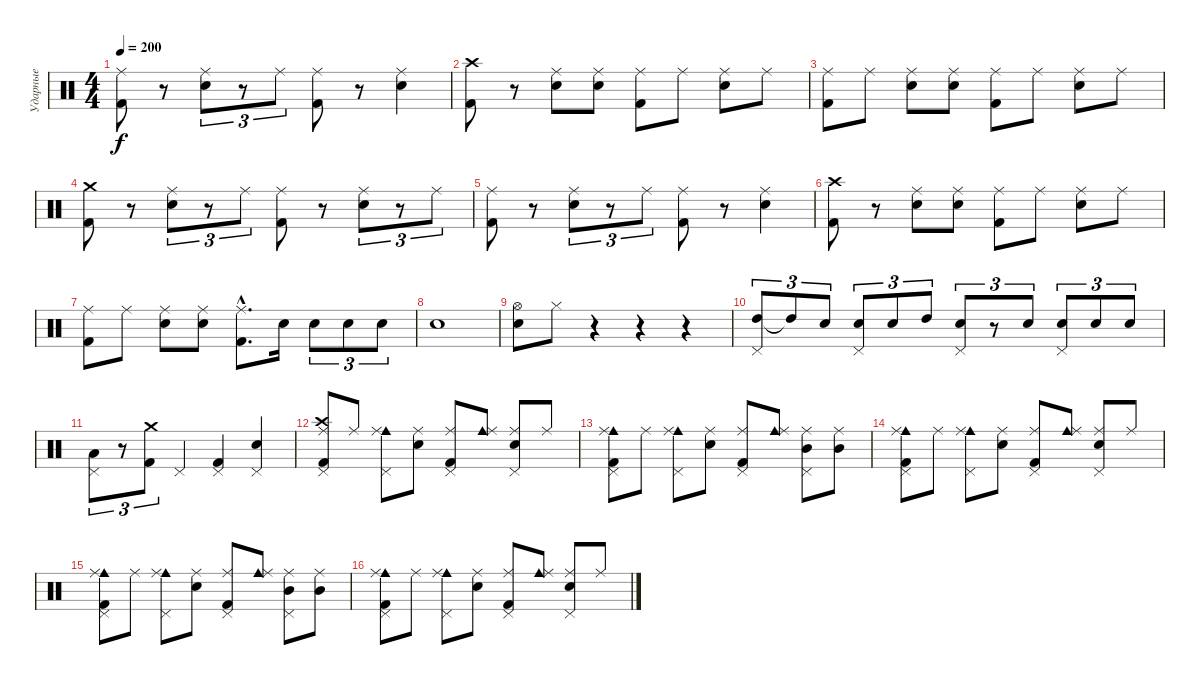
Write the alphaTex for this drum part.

\track ("Ударные" "Ударные") {instrument percussion}
\staff {score}
\articulation defaults
\ts (4 4)
\tempo 200
\clef neutral
\ks c
("Ride (middle)" "Kick (hit) 2").8{dy f} r.8 ("Ride (middle)" "Electric Snare (hit)").8{tu (3 2)} r.8{tu (3 2)} "Ride (middle)".8{tu (3 2)} ("Ride (middle)" "Kick (hit) 2").8 r.8 ("Ride (middle)" "Electric Snare (hit)").4 |
("Crash high (hit)" "Kick (hit) 2").8 r.8 ("Ride (middle)" "Electric Snare (hit)").8 ("Ride (middle)" "Electric Snare (hit)").8 ("Ride (middle)" "Kick (hit) 2").8 "Ride (middle)".8 ("Ride (middle)" "Electric Snare (hit)").8 "Ride (middle)".8 |
("Ride (middle)" "Kick (hit) 2").8 "Ride (middle)".8 ("Ride (middle)" "Electric Snare (hit)").8 ("Ride (middle)" "Electric Snare (hit)").8 ("Ride (middle)" "Kick (hit) 2").8 "Ride (middle)".8 ("Ride (middle)" "Electric Snare (hit)").8 "Ride (middle)".8 |
("Crash medium (hit)" "Kick (hit) 2").8 r.8 ("Ride (middle)" "Electric Snare (hit)").8{tu (3 2)} r.8{tu (3 2)} "Ride (middle)".8{tu (3 2)} ("Ride (middle)" "Kick (hit) 2").8 r.8 ("Ride (middle)" "Electric Snare (hit)").8{tu (3 2)} r.8{tu (3 2)} "Ride (middle)".8{tu (3 2)} |
("Ride (middle)" "Kick (hit) 2").8 r.8 ("Ride (middle)" "Electric Snare (hit)").8{tu (3 2)} r.8{tu (3 2)} "Ride (middle)".8{tu (3 2)} ("Ride (middle)" "Kick (hit) 2").8 r.8 ("Ride (middle)" "Electric Snare (hit)").4 |
("Crash high (hit)" "Kick (hit) 2").8 r.8 ("Ride (middle)" "Electric Snare (hit)").8 ("Ride (middle)" "Electric Snare (hit)").8 ("Ride (middle)" "Kick (hit) 2").8 "Ride (middle)".8 ("Ride (middle)" "Electric Snare (hit)").8 "Ride (middle)".8 |
("Ride (middle)" "Kick (hit) 2").8 "Ride (middle)".8 ("Ride (middle)" "Electric Snare (hit)").8 ("Ride (middle)" "Electric Snare (hit)").8 ("Ride (middle)"{hac} "Kick (hit) 2"{hac}).8{d} "Electric Snare (hit)".16 "Electric Snare (hit)".8{tu (3 2)} "Electric Snare (hit)".8{tu (3 2)} "Electric Snare (hit)".8{tu (3 2)} |
"Electric Snare (hit)".1 |
("Hi-Hat (open)" "Electric Snare (hit)").8 "Hi-Hat (closed)".8 r.4 r.4 r.4 |
("High Tom (hit)" "Pedal Hi-Hat (hit)").8{tu (3 2)} "High Tom (hit)"{t}.8{tu (3 2)} "Electric Snare (hit)".8{tu (3 2)} ("Electric Snare (hit)" "Pedal Hi-Hat (hit)").8{tu (3 2)} "Electric Snare (hit)".8{tu (3 2)} "High Tom (hit)".8{tu (3 2)} ("Electric Snare (hit)" "Pedal Hi-Hat (hit)").8{tu (3 2)} r.8{tu (3 2)} "Electric Snare (hit)".8{tu (3 2)} ("Electric Snare (hit)" "Pedal Hi-Hat (hit)").8{tu (3 2)} "Electric Snare (hit)".8{tu (3 2)} "Electric Snare (hit)".8{tu (3 2)} |
("Low Tom (hit)" "Pedal Hi-Hat (hit)").8{tu (3 2)} r.8{tu (3 2)} ("Crash medium (hit)" "Kick (hit) 2").8{tu (3 2)} "Pedal Hi-Hat (hit)".4 ("Kick (hit) 2" "Pedal Hi-Hat (hit)").4 ("Electric Snare (hit)" "Pedal Hi-Hat (hit)").4 |
("Crash high (hit)" "Ride (middle)" "Kick (hit) 2" "Pedal Hi-Hat (hit)").8 "Ride (middle)".8 ("Cowbell medium (hit)" "Ride (middle)" "Pedal Hi-Hat (hit)").8 ("Electric Snare (hit)" "Ride (middle)").8 ("Ride (middle)" "Kick (hit) 2" "Pedal Hi-Hat (hit)").8 ("Cowbell medium (hit)" "Ride (middle)").8 ("Electric Snare (hit)" "Ride (middle)" "Pedal Hi-Hat (hit)").8 "Ride (middle)".8 |
("Cowbell medium (hit)" "Ride (middle)" "Kick (hit) 2" "Pedal Hi-Hat (hit)").8 "Ride (middle)".8 ("Cowbell medium (hit)" "Ride (middle)" "Pedal Hi-Hat (hit)").8 ("Electric Snare (hit)" "Ride (middle)").8 ("Ride (middle)" "Kick (hit) 2" "Pedal Hi-Hat (hit)").8 ("Cowbell medium (hit)" "Ride (middle)").8 ("Mid Tom (hit)" "Ride (middle)" "Pedal Hi-Hat (hit)").8 ("Mid Tom (hit)" "Ride (middle)").8 |
("Cowbell medium (hit)" "Ride (middle)" "Kick (hit) 2" "Pedal Hi-Hat (hit)").8 "Ride (middle)".8 ("Cowbell medium (hit)" "Ride (middle)" "Pedal Hi-Hat (hit)").8 ("Electric Snare (hit)" "Ride (middle)").8 ("Ride (middle)" "Kick (hit) 2" "Pedal Hi-Hat (hit)").8 ("Cowbell medium (hit)" "Ride (middle)").8 ("Electric Snare (hit)" "Ride (middle)" "Pedal Hi-Hat (hit)").8 "Ride (middle)".8 |
("Cowbell medium (hit)" "Ride (middle)" "Kick (hit) 2" "Pedal Hi-Hat (hit)").8 "Ride (middle)".8 ("Cowbell medium (hit)" "Ride (middle)" "Pedal Hi-Hat (hit)").8 ("Electric Snare (hit)" "Ride (middle)").8 ("Ride (middle)" "Kick (hit) 2" "Pedal Hi-Hat (hit)").8 ("Cowbell medium (hit)" "Ride (middle)").8 ("Mid Tom (hit)" "Ride (middle)" "Pedal Hi-Hat (hit)").8 ("Mid Tom (hit)" "Ride (middle)").8 |
("Cowbell medium (hit)" "Ride (middle)" "Kick (hit) 2" "Pedal Hi-Hat (hit)").8 "Ride (middle)".8 ("Cowbell medium (hit)" "Ride (middle)" "Pedal Hi-Hat (hit)").8 ("Electric Snare (hit)" "Ride (middle)").8 ("Ride (middle)" "Kick (hit) 2" "Pedal Hi-Hat (hit)").8 ("Cowbell medium (hit)" "Ride (middle)").8 ("Electric Snare (hit)" "Ride (middle)" "Pedal Hi-Hat (hit)").8 "Ride (middle)".8
